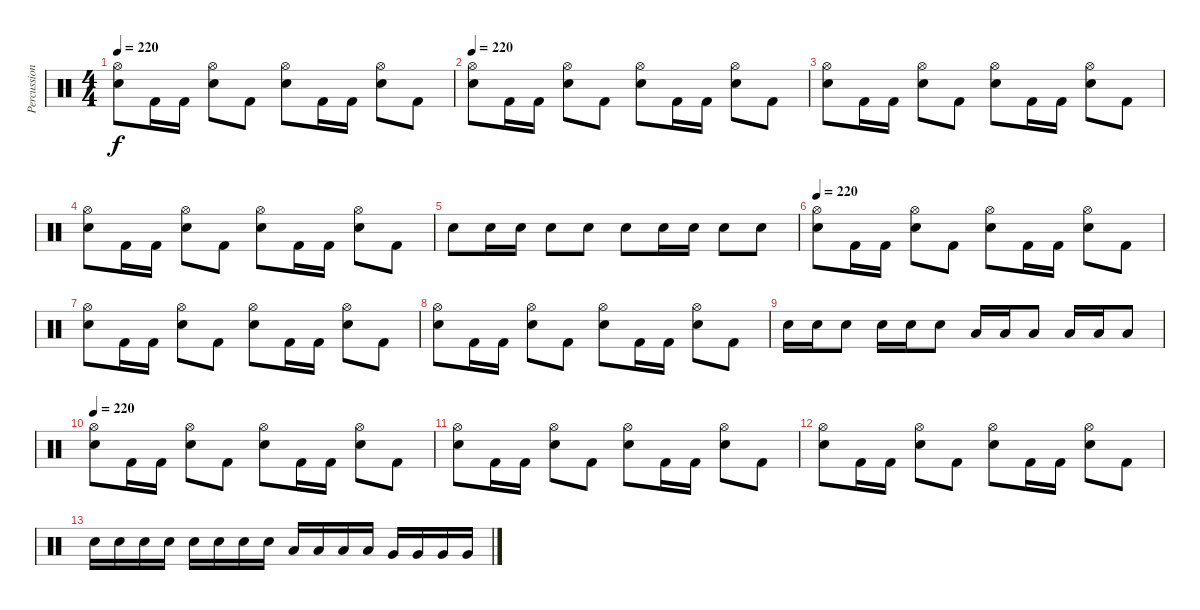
\track ("Percussion" "Percussion") {instrument percussion}
\staff {score}
\articulation defaults
\ts (4 4)
\tempo 220
\clef neutral
\ks c
("Hi-Hat (open)" "Electric Snare (hit)").8{dy f} "Kick (hit) 2".16 "Kick (hit) 2".16 ("Hi-Hat (open)" "Electric Snare (hit)").8 "Kick (hit) 2".8 ("Hi-Hat (open)" "Electric Snare (hit)").8 "Kick (hit) 2".16 "Kick (hit) 2".16 ("Hi-Hat (open)" "Electric Snare (hit)").8 "Kick (hit) 2".8 |
\tempo 220
("Hi-Hat (open)" "Electric Snare (hit)").8 "Kick (hit) 2".16 "Kick (hit) 2".16 ("Hi-Hat (open)" "Electric Snare (hit)").8 "Kick (hit) 2".8 ("Hi-Hat (open)" "Electric Snare (hit)").8 "Kick (hit) 2".16 "Kick (hit) 2".16 ("Hi-Hat (open)" "Electric Snare (hit)").8 "Kick (hit) 2".8 |
("Hi-Hat (open)" "Electric Snare (hit)").8 "Kick (hit) 2".16 "Kick (hit) 2".16 ("Hi-Hat (open)" "Electric Snare (hit)").8 "Kick (hit) 2".8 ("Hi-Hat (open)" "Electric Snare (hit)").8 "Kick (hit) 2".16 "Kick (hit) 2".16 ("Hi-Hat (open)" "Electric Snare (hit)").8 "Kick (hit) 2".8 |
("Hi-Hat (open)" "Electric Snare (hit)").8 "Kick (hit) 2".16 "Kick (hit) 2".16 ("Hi-Hat (open)" "Electric Snare (hit)").8 "Kick (hit) 2".8 ("Hi-Hat (open)" "Electric Snare (hit)").8 "Kick (hit) 2".16 "Kick (hit) 2".16 ("Hi-Hat (open)" "Electric Snare (hit)").8 "Kick (hit) 2".8 |
"Electric Snare (hit)".8 "Electric Snare (hit)".16 "Electric Snare (hit)".16 "Electric Snare (hit)".8 "Electric Snare (hit)".8 "Electric Snare (hit)".8 "Electric Snare (hit)".16 "Electric Snare (hit)".16 "Electric Snare (hit)".8 "Electric Snare (hit)".8 |
\tempo 220
("Hi-Hat (open)" "Electric Snare (hit)").8 "Kick (hit) 2".16 "Kick (hit) 2".16 ("Hi-Hat (open)" "Electric Snare (hit)").8 "Kick (hit) 2".8 ("Hi-Hat (open)" "Electric Snare (hit)").8 "Kick (hit) 2".16 "Kick (hit) 2".16 ("Hi-Hat (open)" "Electric Snare (hit)").8 "Kick (hit) 2".8 |
("Hi-Hat (open)" "Electric Snare (hit)").8 "Kick (hit) 2".16 "Kick (hit) 2".16 ("Hi-Hat (open)" "Electric Snare (hit)").8 "Kick (hit) 2".8 ("Hi-Hat (open)" "Electric Snare (hit)").8 "Kick (hit) 2".16 "Kick (hit) 2".16 ("Hi-Hat (open)" "Electric Snare (hit)").8 "Kick (hit) 2".8 |
("Hi-Hat (open)" "Electric Snare (hit)").8 "Kick (hit) 2".16 "Kick (hit) 2".16 ("Hi-Hat (open)" "Electric Snare (hit)").8 "Kick (hit) 2".8 ("Hi-Hat (open)" "Electric Snare (hit)").8 "Kick (hit) 2".16 "Kick (hit) 2".16 ("Hi-Hat (open)" "Electric Snare (hit)").8 "Kick (hit) 2".8 |
"Electric Snare (hit)".16 "Electric Snare (hit)".16 "Electric Snare (hit)".8 "Electric Snare (hit)".16 "Electric Snare (hit)".16 "Electric Snare (hit)".8 "Low Tom (hit)".16 "Low Tom (hit)".16 "Low Tom (hit)".8 "Low Tom (hit)".16 "Low Tom (hit)".16 "Low Tom (hit)".8 |
\tempo 220
("Hi-Hat (open)" "Electric Snare (hit)").8 "Kick (hit) 2".16 "Kick (hit) 2".16 ("Hi-Hat (open)" "Electric Snare (hit)").8 "Kick (hit) 2".8 ("Hi-Hat (open)" "Electric Snare (hit)").8 "Kick (hit) 2".16 "Kick (hit) 2".16 ("Hi-Hat (open)" "Electric Snare (hit)").8 "Kick (hit) 2".8 |
("Hi-Hat (open)" "Electric Snare (hit)").8 "Kick (hit) 2".16 "Kick (hit) 2".16 ("Hi-Hat (open)" "Electric Snare (hit)").8 "Kick (hit) 2".8 ("Hi-Hat (open)" "Electric Snare (hit)").8 "Kick (hit) 2".16 "Kick (hit) 2".16 ("Hi-Hat (open)" "Electric Snare (hit)").8 "Kick (hit) 2".8 |
("Hi-Hat (open)" "Electric Snare (hit)").8 "Kick (hit) 2".16 "Kick (hit) 2".16 ("Hi-Hat (open)" "Electric Snare (hit)").8 "Kick (hit) 2".8 ("Hi-Hat (open)" "Electric Snare (hit)").8 "Kick (hit) 2".16 "Kick (hit) 2".16 ("Hi-Hat (open)" "Electric Snare (hit)").8 "Kick (hit) 2".8 |
"Electric Snare (hit)".16 "Electric Snare (hit)".16 "Electric Snare (hit)".16 "Electric Snare (hit)".16 "Electric Snare (hit)".16 "Electric Snare (hit)".16 "Electric Snare (hit)".16 "Electric Snare (hit)".16 "Low Tom (hit)".16 "Low Tom (hit)".16 "Low Tom (hit)".16 "Low Tom (hit)".16 "Very Low Tom (hit)".16 "Very Low Tom (hit)".16 "Very Low Tom (hit)".16 "Very Low Tom (hit)".16
